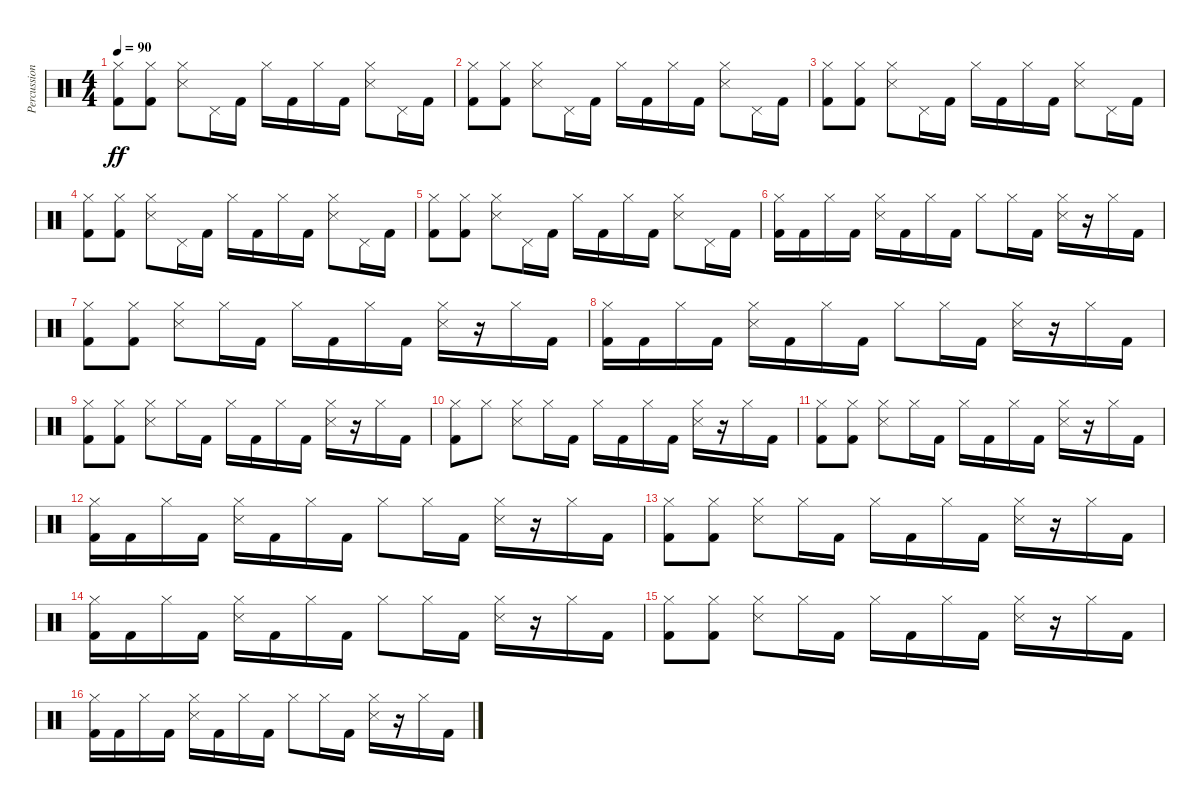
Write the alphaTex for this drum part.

\track ("Percussions" "Percussion") {instrument percussion}
\staff {score}
\articulation defaults
\ts (4 4)
\tempo 90
\clef neutral
\ks c
("Kick (hit) 2" "Hi-Hat (closed)").8{dy ff} ("Kick (hit) 2" "Hi-Hat (closed)").8 ("Snare (side stick) 3" "Hi-Hat (closed)").8 "Pedal Hi-Hat (hit)".16 "Kick (hit) 2".16 "Hi-Hat (closed)".16 "Kick (hit) 2".16 "Hi-Hat (closed)".16 "Kick (hit) 2".16 ("Snare (side stick) 3" "Hi-Hat (closed)").8 "Pedal Hi-Hat (hit)".16 "Kick (hit) 2".16 |
("Kick (hit) 2" "Hi-Hat (closed)").8 ("Kick (hit) 2" "Hi-Hat (closed)").8 ("Snare (side stick) 3" "Hi-Hat (closed)").8 "Pedal Hi-Hat (hit)".16 "Kick (hit) 2".16 "Hi-Hat (closed)".16 "Kick (hit) 2".16 "Hi-Hat (closed)".16 "Kick (hit) 2".16 ("Snare (side stick) 3" "Hi-Hat (closed)").8 "Pedal Hi-Hat (hit)".16 "Kick (hit) 2".16 |
("Kick (hit) 2" "Hi-Hat (closed)").8 ("Kick (hit) 2" "Hi-Hat (closed)").8 ("Snare (side stick) 3" "Hi-Hat (closed)").8 "Pedal Hi-Hat (hit)".16 "Kick (hit) 2".16 "Hi-Hat (closed)".16 "Kick (hit) 2".16 "Hi-Hat (closed)".16 "Kick (hit) 2".16 ("Snare (side stick) 3" "Hi-Hat (closed)").8 "Pedal Hi-Hat (hit)".16 "Kick (hit) 2".16 |
("Kick (hit) 2" "Hi-Hat (closed)").8 ("Kick (hit) 2" "Hi-Hat (closed)").8 ("Snare (side stick) 3" "Hi-Hat (closed)").8 "Pedal Hi-Hat (hit)".16 "Kick (hit) 2".16 "Hi-Hat (closed)".16 "Kick (hit) 2".16 "Hi-Hat (closed)".16 "Kick (hit) 2".16 ("Snare (side stick) 3" "Hi-Hat (closed)").8 "Pedal Hi-Hat (hit)".16 "Kick (hit) 2".16 |
("Kick (hit) 2" "Hi-Hat (closed)").8 ("Kick (hit) 2" "Hi-Hat (closed)").8 ("Snare (side stick) 3" "Hi-Hat (closed)").8 "Pedal Hi-Hat (hit)".16 "Kick (hit) 2".16 "Hi-Hat (closed)".16 "Kick (hit) 2".16 "Hi-Hat (closed)".16 "Kick (hit) 2".16 ("Snare (side stick) 3" "Hi-Hat (closed)").8 "Pedal Hi-Hat (hit)".16 "Kick (hit) 2".16 |
("Kick (hit) 2" "Hi-Hat (closed)").16 "Kick (hit) 2".16 "Hi-Hat (closed)".16 "Kick (hit) 2".16 ("Snare (side stick) 3" "Hi-Hat (closed)").16 "Kick (hit) 2".16 "Hi-Hat (closed)".16 "Kick (hit) 2".16 "Hi-Hat (closed)".8 "Hi-Hat (closed)".16 "Kick (hit) 2".16 ("Snare (side stick) 3" "Hi-Hat (closed)").16 r.16 "Hi-Hat (closed)".16 "Kick (hit) 2".16 |
("Kick (hit) 2" "Hi-Hat (closed)").8 ("Kick (hit) 2" "Hi-Hat (closed)").8 ("Snare (side stick) 3" "Hi-Hat (closed)").8 "Hi-Hat (closed)".16 "Kick (hit) 2".16 "Hi-Hat (closed)".16 "Kick (hit) 2".16 "Hi-Hat (closed)".16 "Kick (hit) 2".16 ("Snare (side stick) 3" "Hi-Hat (closed)").16 r.16 "Hi-Hat (closed)".16 "Kick (hit) 2".16 |
("Kick (hit) 2" "Hi-Hat (closed)").16 "Kick (hit) 2".16 "Hi-Hat (closed)".16 "Kick (hit) 2".16 ("Snare (side stick) 3" "Hi-Hat (closed)").16 "Kick (hit) 2".16 "Hi-Hat (closed)".16 "Kick (hit) 2".16 "Hi-Hat (closed)".8 "Hi-Hat (closed)".16 "Kick (hit) 2".16 ("Snare (side stick) 3" "Hi-Hat (closed)").16 r.16 "Hi-Hat (closed)".16 "Kick (hit) 2".16 |
("Kick (hit) 2" "Hi-Hat (closed)").8 ("Kick (hit) 2" "Hi-Hat (closed)").8 ("Snare (side stick) 3" "Hi-Hat (closed)").8 "Hi-Hat (closed)".16 "Kick (hit) 2".16 "Hi-Hat (closed)".16 "Kick (hit) 2".16 "Hi-Hat (closed)".16 "Kick (hit) 2".16 ("Snare (side stick) 3" "Hi-Hat (closed)").16 r.16 "Hi-Hat (closed)".16 "Kick (hit) 2".16 |
("Kick (hit) 2" "Hi-Hat (closed)").8 "Hi-Hat (closed)".8 ("Snare (side stick) 3" "Hi-Hat (closed)").8 "Hi-Hat (closed)".16 "Kick (hit) 2".16 "Hi-Hat (closed)".16 "Kick (hit) 2".16 "Hi-Hat (closed)".16 "Kick (hit) 2".16 ("Snare (side stick) 3" "Hi-Hat (closed)").16 r.16 "Hi-Hat (closed)".16 "Kick (hit) 2".16 |
("Kick (hit) 2" "Hi-Hat (closed)").8 ("Kick (hit) 2" "Hi-Hat (closed)").8 ("Snare (side stick) 3" "Hi-Hat (closed)").8 "Hi-Hat (closed)".16 "Kick (hit) 2".16 "Hi-Hat (closed)".16 "Kick (hit) 2".16 "Hi-Hat (closed)".16 "Kick (hit) 2".16 ("Snare (side stick) 3" "Hi-Hat (closed)").16 r.16 "Hi-Hat (closed)".16 "Kick (hit) 2".16 |
("Kick (hit) 2" "Hi-Hat (closed)").16 "Kick (hit) 2".16 "Hi-Hat (closed)".16 "Kick (hit) 2".16 ("Snare (side stick) 3" "Hi-Hat (closed)").16 "Kick (hit) 2".16 "Hi-Hat (closed)".16 "Kick (hit) 2".16 "Hi-Hat (closed)".8 "Hi-Hat (closed)".16 "Kick (hit) 2".16 ("Snare (side stick) 3" "Hi-Hat (closed)").16 r.16 "Hi-Hat (closed)".16 "Kick (hit) 2".16 |
("Kick (hit) 2" "Hi-Hat (closed)").8 ("Kick (hit) 2" "Hi-Hat (closed)").8 ("Snare (side stick) 3" "Hi-Hat (closed)").8 "Hi-Hat (closed)".16 "Kick (hit) 2".16 "Hi-Hat (closed)".16 "Kick (hit) 2".16 "Hi-Hat (closed)".16 "Kick (hit) 2".16 ("Snare (side stick) 3" "Hi-Hat (closed)").16 r.16 "Hi-Hat (closed)".16 "Kick (hit) 2".16 |
("Kick (hit) 2" "Hi-Hat (closed)").16 "Kick (hit) 2".16 "Hi-Hat (closed)".16 "Kick (hit) 2".16 ("Snare (side stick) 3" "Hi-Hat (closed)").16 "Kick (hit) 2".16 "Hi-Hat (closed)".16 "Kick (hit) 2".16 "Hi-Hat (closed)".8 "Hi-Hat (closed)".16 "Kick (hit) 2".16 ("Snare (side stick) 3" "Hi-Hat (closed)").16 r.16 "Hi-Hat (closed)".16 "Kick (hit) 2".16 |
("Kick (hit) 2" "Hi-Hat (closed)").8 ("Kick (hit) 2" "Hi-Hat (closed)").8 ("Snare (side stick) 3" "Hi-Hat (closed)").8 "Hi-Hat (closed)".16 "Kick (hit) 2".16 "Hi-Hat (closed)".16 "Kick (hit) 2".16 "Hi-Hat (closed)".16 "Kick (hit) 2".16 ("Snare (side stick) 3" "Hi-Hat (closed)").16 r.16 "Hi-Hat (closed)".16 "Kick (hit) 2".16 |
("Kick (hit) 2" "Hi-Hat (closed)").16 "Kick (hit) 2".16 "Hi-Hat (closed)".16 "Kick (hit) 2".16 ("Snare (side stick) 3" "Hi-Hat (closed)").16 "Kick (hit) 2".16 "Hi-Hat (closed)".16 "Kick (hit) 2".16 "Hi-Hat (closed)".8 "Hi-Hat (closed)".16 "Kick (hit) 2".16 ("Snare (side stick) 3" "Hi-Hat (closed)").16 r.16 "Hi-Hat (closed)".16 "Kick (hit) 2".16
